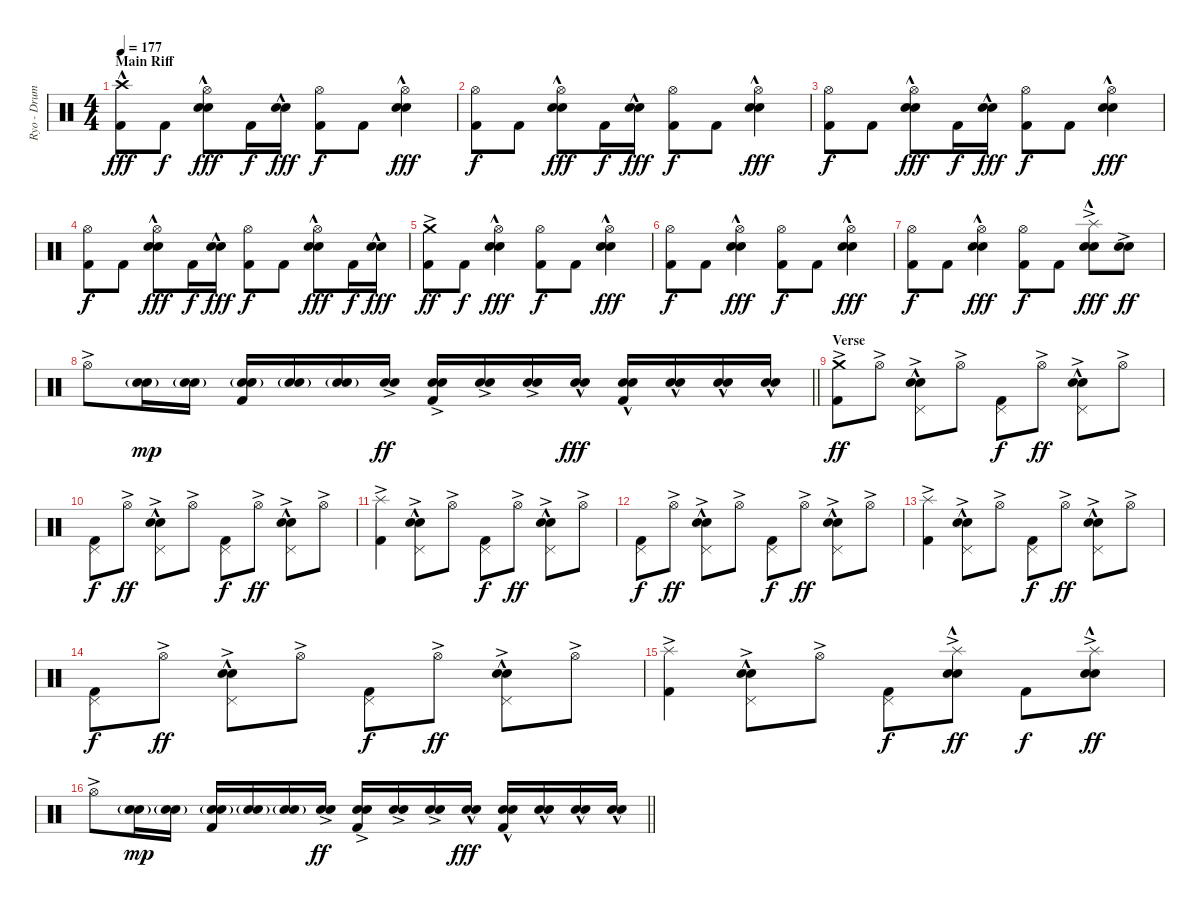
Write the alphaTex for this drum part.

\track ("Ryo - Drums" "Ryo - Drum") {instrument percussion}
\staff {score}
\articulation defaults
\ts (4 4)
\section ("" "Main Riff")
\tempo 177
\clef neutral
\ks c
("Crash high (hit)"{hac} "Kick (hit) 2").8{dy fff} "Kick (hit) 2".8{dy f} ("Hi-Hat (open)" "Electric Snare (hit)"{hac} "Snare (hit) 2"{hac}).8{dy fff} "Kick (hit) 2".16{dy f} ("Electric Snare (hit)"{hac} "Snare (hit) 2"{hac}).16{dy fff} ("Hi-Hat (open)" "Kick (hit) 2").8{dy f} "Kick (hit) 2".8 ("Hi-Hat (open)" "Electric Snare (hit)"{hac} "Snare (hit) 2"{hac}).4{dy fff} |
("Hi-Hat (open)" "Kick (hit) 2").8{dy f} "Kick (hit) 2".8 ("Hi-Hat (open)" "Electric Snare (hit)"{hac} "Snare (hit) 2"{hac}).8{dy fff} "Kick (hit) 2".16{dy f} ("Electric Snare (hit)"{hac} "Snare (hit) 2"{hac}).16{dy fff} ("Hi-Hat (open)" "Kick (hit) 2").8{dy f} "Kick (hit) 2".8 ("Hi-Hat (open)" "Electric Snare (hit)"{hac} "Snare (hit) 2"{hac}).4{dy fff} |
("Hi-Hat (open)" "Kick (hit) 2").8{dy f} "Kick (hit) 2".8 ("Hi-Hat (open)" "Electric Snare (hit)"{hac} "Snare (hit) 2"{hac}).8{dy fff} "Kick (hit) 2".16{dy f} ("Electric Snare (hit)"{hac} "Snare (hit) 2"{hac}).16{dy fff} ("Hi-Hat (open)" "Kick (hit) 2").8{dy f} "Kick (hit) 2".8 ("Hi-Hat (open)" "Electric Snare (hit)"{hac} "Snare (hit) 2"{hac}).4{dy fff} |
("Hi-Hat (open)" "Kick (hit) 2").8{dy f} "Kick (hit) 2".8 ("Hi-Hat (open)" "Electric Snare (hit)"{hac} "Snare (hit) 2"{hac}).8{dy fff} "Kick (hit) 2".16{dy f} ("Electric Snare (hit)"{hac} "Snare (hit) 2"{hac}).16{dy fff} ("Hi-Hat (open)" "Kick (hit) 2").8{dy f} "Kick (hit) 2".8 ("Hi-Hat (open)" "Electric Snare (hit)"{hac} "Snare (hit) 2"{hac}).8{dy fff} "Kick (hit) 2".16{dy f} ("Electric Snare (hit)"{hac} "Snare (hit) 2"{hac}).16{dy fff} |
("Crash medium (hit)"{ac} "Kick (hit) 2").8{dy ff} "Kick (hit) 2".8{dy f} ("Hi-Hat (open)" "Electric Snare (hit)"{hac} "Snare (hit) 2"{hac}).4{dy fff} ("Hi-Hat (open)" "Kick (hit) 2").8{dy f} "Kick (hit) 2".8 ("Hi-Hat (open)" "Electric Snare (hit)"{hac} "Snare (hit) 2"{hac}).4{dy fff} |
("Hi-Hat (open)" "Kick (hit) 2").8{dy f} "Kick (hit) 2".8 ("Hi-Hat (open)" "Electric Snare (hit)"{hac} "Snare (hit) 2"{hac}).4{dy fff} ("Hi-Hat (open)" "Kick (hit) 2").8{dy f} "Kick (hit) 2".8 ("Hi-Hat (open)" "Electric Snare (hit)"{hac} "Snare (hit) 2"{hac}).4{dy fff} |
("Hi-Hat (open)" "Kick (hit) 2").8{dy f} "Kick (hit) 2".8 ("Hi-Hat (open)" "Electric Snare (hit)"{hac} "Snare (hit) 2"{hac}).4{dy fff} ("Hi-Hat (open)" "Kick (hit) 2").8{dy f} "Kick (hit) 2".8 ("Splash (hit)"{ac} "Electric Snare (hit)"{hac} "Snare (hit) 2"{hac}).8{dy fff} ("Electric Snare (hit)"{ac} "Snare (hit) 2"{ac}).8{dy ff} |
\barLineRight lightlight "Hi-Hat (open)"{ac}.8
("Electric Snare (hit)"{g} "Snare (hit) 2"{g}).16{dy mp} ("Electric Snare (hit)"{g} "Snare (hit) 2"{g}).16 ("Electric Snare (hit)"{g} "Snare (hit) 2"{g} "Kick (hit) 2").16 ("Electric Snare (hit)"{g} "Snare (hit) 2"{g}).16 ("Electric Snare (hit)"{g} "Snare (hit) 2"{g}).16 ("Electric Snare (hit)"{ac} "Snare (hit) 2"{ac}).16{dy ff} ("Electric Snare (hit)"{ac} "Snare (hit) 2"{ac} "Kick (hit) 2").16 ("Electric Snare (hit)"{ac} "Snare (hit) 2"{ac}).16 ("Electric Snare (hit)"{ac} "Snare (hit) 2"{ac}).16 ("Electric Snare (hit)"{hac} "Snare (hit) 2"{hac}).16{dy fff} ("Electric Snare (hit)"{hac} "Snare (hit) 2"{hac} "Kick (hit) 2").16 ("Electric Snare (hit)"{hac} "Snare (hit) 2"{hac}).16 ("Electric Snare (hit)"{hac} "Snare (hit) 2"{hac}).16 ("Electric Snare (hit)"{hac} "Snare (hit) 2"{hac}).16 |
\section ("" "Verse")
("Crash medium (hit)"{ac} "Kick (hit) 2").8{dy ff} "Hi-Hat (open)"{ac}.8 ("Pedal Hi-Hat (hit)" "Electric Snare (hit)"{hac} "Snare (hit) 2"{ac}).8 "Hi-Hat (open)"{ac}.8 ("Pedal Hi-Hat (hit)" "Kick (hit) 2").8{dy f} "Hi-Hat (open)"{ac}.8{dy ff} ("Pedal Hi-Hat (hit)" "Electric Snare (hit)"{hac} "Snare (hit) 2"{ac}).8 "Hi-Hat (open)"{ac}.8 |
("Pedal Hi-Hat (hit)" "Kick (hit) 2").8{dy f} "Hi-Hat (open)"{ac}.8{dy ff} ("Pedal Hi-Hat (hit)" "Electric Snare (hit)"{hac} "Snare (hit) 2"{ac}).8 "Hi-Hat (open)"{ac}.8 ("Pedal Hi-Hat (hit)" "Kick (hit) 2").8{dy f} "Hi-Hat (open)"{ac}.8{dy ff} ("Pedal Hi-Hat (hit)" "Electric Snare (hit)"{hac} "Snare (hit) 2"{ac}).8 "Hi-Hat (open)"{ac}.8 |
("Splash (hit)"{ac} "Kick (hit) 2").4 ("Pedal Hi-Hat (hit)" "Electric Snare (hit)"{hac} "Snare (hit) 2"{ac}).8 "Hi-Hat (open)"{ac}.8 ("Pedal Hi-Hat (hit)" "Kick (hit) 2").8{dy f} "Hi-Hat (open)"{ac}.8{dy ff} ("Pedal Hi-Hat (hit)" "Electric Snare (hit)"{hac} "Snare (hit) 2"{ac}).8 "Hi-Hat (open)"{ac}.8 |
("Pedal Hi-Hat (hit)" "Kick (hit) 2").8{dy f} "Hi-Hat (open)"{ac}.8{dy ff} ("Pedal Hi-Hat (hit)" "Electric Snare (hit)"{hac} "Snare (hit) 2"{ac}).8 "Hi-Hat (open)"{ac}.8 ("Pedal Hi-Hat (hit)" "Kick (hit) 2").8{dy f} "Hi-Hat (open)"{ac}.8{dy ff} ("Pedal Hi-Hat (hit)" "Electric Snare (hit)"{hac} "Snare (hit) 2"{ac}).8 "Hi-Hat (open)"{ac}.8 |
("Splash (hit)"{ac} "Kick (hit) 2").4 ("Pedal Hi-Hat (hit)" "Electric Snare (hit)"{hac} "Snare (hit) 2"{ac}).8 "Hi-Hat (open)"{ac}.8 ("Pedal Hi-Hat (hit)" "Kick (hit) 2").8{dy f} "Hi-Hat (open)"{ac}.8{dy ff} ("Pedal Hi-Hat (hit)" "Electric Snare (hit)"{hac} "Snare (hit) 2"{ac}).8 "Hi-Hat (open)"{ac}.8 |
("Pedal Hi-Hat (hit)" "Kick (hit) 2").8{dy f} "Hi-Hat (open)"{ac}.8{dy ff} ("Pedal Hi-Hat (hit)" "Electric Snare (hit)"{hac} "Snare (hit) 2"{ac}).8 "Hi-Hat (open)"{ac}.8 ("Pedal Hi-Hat (hit)" "Kick (hit) 2").8{dy f} "Hi-Hat (open)"{ac}.8{dy ff} ("Pedal Hi-Hat (hit)" "Electric Snare (hit)"{hac} "Snare (hit) 2"{ac}).8 "Hi-Hat (open)"{ac}.8 |
("Splash (hit)"{ac} "Kick (hit) 2").4 ("Pedal Hi-Hat (hit)" "Electric Snare (hit)"{hac} "Snare (hit) 2"{ac}).8 "Hi-Hat (open)"{ac}.8 ("Pedal Hi-Hat (hit)" "Kick (hit) 2").8{dy f} ("Splash (hit)"{ac} "Electric Snare (hit)"{hac} "Snare (hit) 2"{ac}).8{dy ff} "Kick (hit) 2".8{dy f} ("Splash (hit)"{ac} "Electric Snare (hit)"{hac} "Snare (hit) 2"{ac}).8{dy ff} |
\barLineRight lightlight "Hi-Hat (open)"{ac}.8
("Electric Snare (hit)"{g} "Snare (hit) 2"{g}).16{dy mp} ("Electric Snare (hit)"{g} "Snare (hit) 2"{g}).16 ("Electric Snare (hit)"{g} "Snare (hit) 2"{g} "Kick (hit) 2").16 ("Electric Snare (hit)"{g} "Snare (hit) 2"{g}).16 ("Electric Snare (hit)"{g} "Snare (hit) 2"{g}).16 ("Electric Snare (hit)"{ac} "Snare (hit) 2"{ac}).16{dy ff} ("Electric Snare (hit)"{ac} "Snare (hit) 2"{ac} "Kick (hit) 2").16 ("Electric Snare (hit)"{ac} "Snare (hit) 2"{ac}).16 ("Electric Snare (hit)"{ac} "Snare (hit) 2"{ac}).16 ("Electric Snare (hit)"{hac} "Snare (hit) 2"{hac}).16{dy fff} ("Electric Snare (hit)"{hac} "Snare (hit) 2"{hac} "Kick (hit) 2").16 ("Electric Snare (hit)"{hac} "Snare (hit) 2"{hac}).16 ("Electric Snare (hit)"{hac} "Snare (hit) 2"{hac}).16 ("Electric Snare (hit)"{hac} "Snare (hit) 2"{hac}).16
